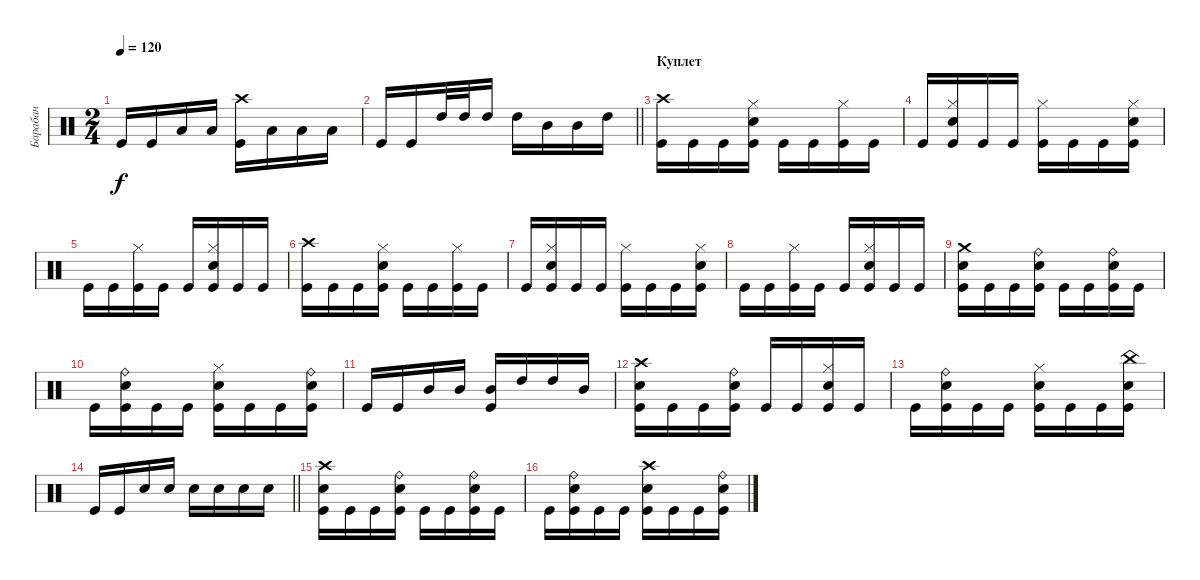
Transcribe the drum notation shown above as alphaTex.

\track ("Барабан" "Барабан") {instrument percussion}
\staff {score}
\articulation defaults
\ts (2 4)
\tempo 120
\clef neutral
\ks c "Kick (hit)".16{dy f} "Kick (hit)".16 "Low Tom (hit)".16 "Low Tom (hit)".16
("Crash high (hit)" "Kick (hit)").16 "Low Tom (hit)".16 "Low Tom (hit)".16 "Low Tom (hit)".16 |
\barLineRight lightlight "Kick (hit)".16 "Kick (hit)".16 "High Tom (hit)".32 "High Tom (hit)".32 "High Tom (hit)".16 "High Tom (hit)".16 "Mid Tom (hit)".16 "Mid Tom (hit)".16 "High Tom (hit)".16
|
\section ("" "Куплет")
("Crash high (hit)" "Kick (hit)").16 "Kick (hit)".16 "Kick (hit)".16 ("Hi-Hat (closed)" "Electric Snare (hit)" "Kick (hit)").16 "Kick (hit)".16 "Kick (hit)".16 ("Hi-Hat (closed)" "Kick (hit)").16 "Kick (hit)".16 |
"Kick (hit)".16 ("Hi-Hat (closed)" "Electric Snare (hit)" "Kick (hit)").16 "Kick (hit)".16 "Kick (hit)".16 ("Hi-Hat (closed)" "Kick (hit)").16 "Kick (hit)".16 "Kick (hit)".16 ("Hi-Hat (closed)" "Electric Snare (hit)" "Kick (hit)").16 |
"Kick (hit)".16 "Kick (hit)".16 ("Hi-Hat (closed)" "Kick (hit)").16 "Kick (hit)".16 "Kick (hit)".16 ("Hi-Hat (closed)" "Electric Snare (hit)" "Kick (hit)").16 "Kick (hit)".16 "Kick (hit)".16 |
("Crash high (hit)" "Kick (hit)").16 "Kick (hit)".16 "Kick (hit)".16 ("Hi-Hat (closed)" "Electric Snare (hit)" "Kick (hit)").16 "Kick (hit)".16 "Kick (hit)".16 ("Hi-Hat (closed)" "Kick (hit)").16 "Kick (hit)".16 |
"Kick (hit)".16 ("Hi-Hat (closed)" "Electric Snare (hit)" "Kick (hit)").16 "Kick (hit)".16 "Kick (hit)".16 ("Hi-Hat (closed)" "Kick (hit)").16 "Kick (hit)".16 "Kick (hit)".16 ("Hi-Hat (closed)" "Electric Snare (hit)" "Kick (hit)").16 |
"Kick (hit)".16 "Kick (hit)".16 ("Hi-Hat (closed)" "Kick (hit)").16 "Kick (hit)".16 "Kick (hit)".16 ("Hi-Hat (closed)" "Electric Snare (hit)" "Kick (hit)").16 "Kick (hit)".16 "Kick (hit)".16 |
("Crash medium (hit)" "Electric Snare (hit)" "Kick (hit)").16 "Kick (hit)".16 "Kick (hit)".16 ("Ride (bell)" "Electric Snare (hit)" "Kick (hit)").16 "Kick (hit)".16 "Kick (hit)".16 ("Ride (bell)" "Electric Snare (hit)" "Kick (hit)").16 "Kick (hit)".16 |
"Kick (hit)".16 ("Ride (bell)" "Electric Snare (hit)" "Kick (hit)").16 "Kick (hit)".16 "Kick (hit)".16 ("Hi-Hat (closed)" "Electric Snare (hit)" "Kick (hit)").16 "Kick (hit)".16 "Kick (hit)".16 ("Ride (bell)" "Electric Snare (hit)" "Kick (hit)").16 |
"Kick (hit)".16 "Kick (hit)".16 "Mid Tom (hit)".16 "Mid Tom (hit)".16 ("Mid Tom (hit)" "Kick (hit)").16 "High Tom (hit)".16 "High Tom (hit)".16 "Mid Tom (hit)".16 |
("Crash high (hit)" "Electric Snare (hit)" "Kick (hit)").16 "Kick (hit)".16 "Kick (hit)".16 ("Ride (bell)" "Electric Snare (hit)" "Kick (hit)").16 "Kick (hit)".16 "Kick (hit)".16 ("Hi-Hat (closed)" "Electric Snare (hit)" "Kick (hit)").16 "Kick (hit)".16 |
"Kick (hit)".16 ("Ride (bell)" "Electric Snare (hit)" "Kick (hit)").16 "Kick (hit)".16 "Kick (hit)".16 ("Hi-Hat (closed)" "Electric Snare (hit)" "Kick (hit)").16 "Kick (hit)".16 "Kick (hit)".16 ("China (hit)" "Electric Snare (hit)" "Kick (hit)").16 |
\barLineRight lightlight "Kick (hit)".16 "Kick (hit)".16 "Electric Snare (hit)".16 "Electric Snare (hit)".16 "Electric Snare (hit)".16 "Electric Snare (hit)".16 "Electric Snare (hit)".16 "Electric Snare (hit)".16
|
("Crash high (hit)" "Electric Snare (hit)" "Kick (hit)").16 "Kick (hit)".16 "Kick (hit)".16 ("Ride (bell)" "Electric Snare (hit)" "Kick (hit)").16 "Kick (hit)".16 "Kick (hit)".16 ("Ride (bell)" "Electric Snare (hit)" "Kick (hit)").16 "Kick (hit)".16 |
"Kick (hit)".16 ("Ride (bell)" "Electric Snare (hit)" "Kick (hit)").16 "Kick (hit)".16 "Kick (hit)".16 ("Crash high (hit)" "Electric Snare (hit)" "Kick (hit)").16 "Kick (hit)".16 "Kick (hit)".16 ("Ride (bell)" "Electric Snare (hit)" "Kick (hit)").16
